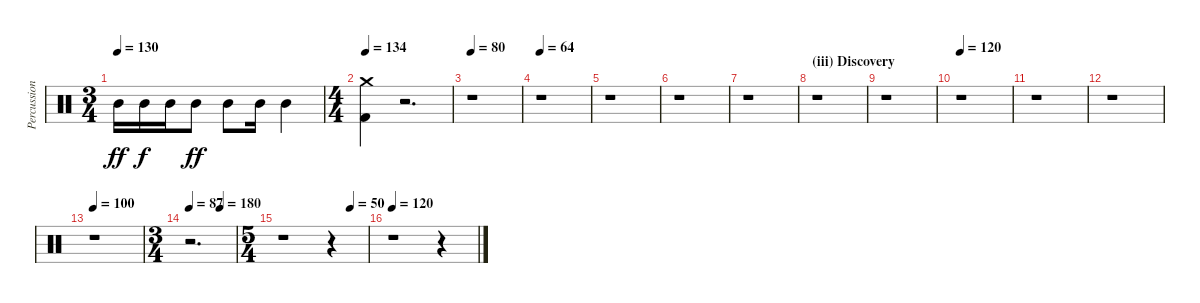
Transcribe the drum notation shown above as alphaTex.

\track ("Percussion" "Percussion") {instrument percussion}
\staff {score}
\articulation defaults
\ts (3 4)
\tempo 130
\clef neutral
\ks c "Mid Tom (hit)".16{dy ff} "Mid Tom (hit)".16{dy f} "Mid Tom (hit)".16 "Mid Tom (hit)".8{dy ff} "Mid Tom (hit)".8 "Mid Tom (hit)".16 "Mid Tom (hit)".4
|
\ts (4 4)
\tempo 134
("Kick (hit) 2" "Crash medium (hit)").4 r.2{d} |
\tempo 80
r.1 |
\tempo 64
r.1 |
r.1 |
r.1 |
r.1 |
\section ("" "(iii) Discovery ")
r.1 |
r.1 |
\tempo 120
r.1 |
r.1 |
r.1 |
\tempo 100
r.1 |
\ts (3 4)
\tempo 87
\tempo (180 0.6666666666666666)
r.2{d} |
\ts (5 4)
\tempo (50 0.8)
r.1 r.4 |
\tempo 120
r.1 r.4
